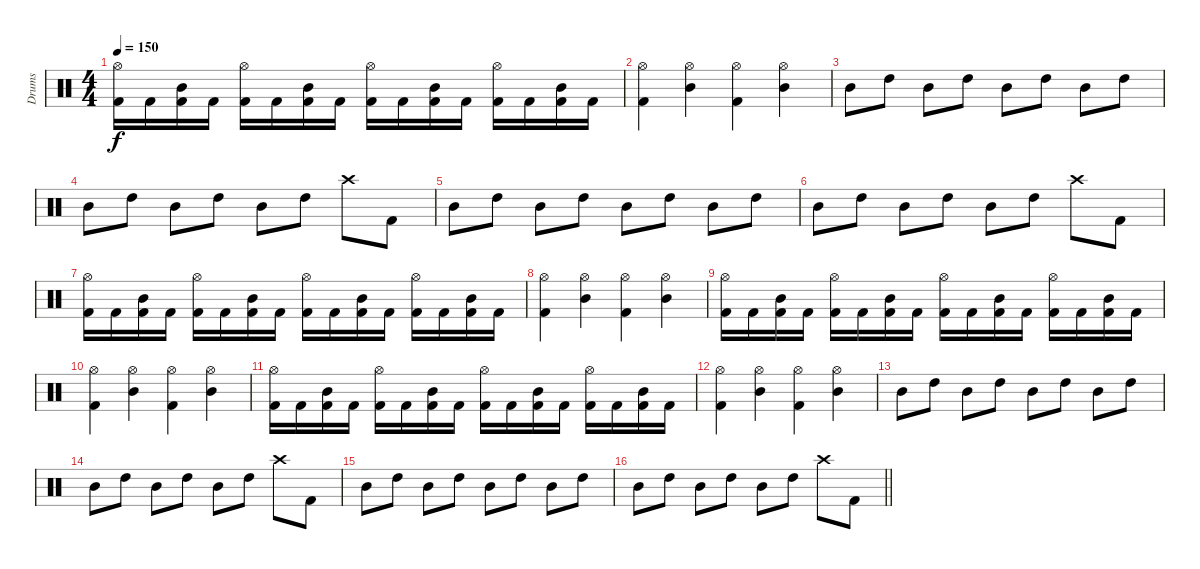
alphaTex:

\track ("Drums" "Drums") {instrument percussion}
\staff {score}
\articulation defaults
\ts (4 4)
\tempo 150
\clef neutral
\ks c
("Kick (hit) 2" "Hi-Hat (open)").16{dy f} "Kick (hit) 2".16 ("Kick (hit) 2" "Mid Tom (hit)").16 "Kick (hit) 2".16 ("Kick (hit) 2" "Hi-Hat (open)").16 "Kick (hit) 2".16 ("Kick (hit) 2" "Mid Tom (hit)").16 "Kick (hit) 2".16 ("Kick (hit) 2" "Hi-Hat (open)").16 "Kick (hit) 2".16 ("Kick (hit) 2" "Mid Tom (hit)").16 "Kick (hit) 2".16 ("Kick (hit) 2" "Hi-Hat (open)").16 "Kick (hit) 2".16 ("Kick (hit) 2" "Mid Tom (hit)").16 "Kick (hit) 2".16 |
("Kick (hit) 2" "Hi-Hat (open)").4 ("Mid Tom (hit)" "Hi-Hat (open)").4 ("Kick (hit) 2" "Hi-Hat (open)").4 ("Mid Tom (hit)" "Hi-Hat (open)").4 |
"Mid Tom (hit)".8 "High Tom (hit)".8 "Mid Tom (hit)".8 "High Tom (hit)".8 "Mid Tom (hit)".8 "High Tom (hit)".8 "Mid Tom (hit)".8 "High Tom (hit)".8 |
"Mid Tom (hit)".8 "High Tom (hit)".8 "Mid Tom (hit)".8 "High Tom (hit)".8 "Mid Tom (hit)".8 "High Tom (hit)".8 "Crash high (hit)".8 "Kick (hit) 2".8 |
"Mid Tom (hit)".8 "High Tom (hit)".8 "Mid Tom (hit)".8 "High Tom (hit)".8 "Mid Tom (hit)".8 "High Tom (hit)".8 "Mid Tom (hit)".8 "High Tom (hit)".8 |
"Mid Tom (hit)".8 "High Tom (hit)".8 "Mid Tom (hit)".8 "High Tom (hit)".8 "Mid Tom (hit)".8 "High Tom (hit)".8 "Crash high (hit)".8 "Kick (hit) 2".8 |
("Kick (hit) 2" "Hi-Hat (open)").16 "Kick (hit) 2".16 ("Kick (hit) 2" "Mid Tom (hit)").16 "Kick (hit) 2".16 ("Kick (hit) 2" "Hi-Hat (open)").16 "Kick (hit) 2".16 ("Kick (hit) 2" "Mid Tom (hit)").16 "Kick (hit) 2".16 ("Kick (hit) 2" "Hi-Hat (open)").16 "Kick (hit) 2".16 ("Kick (hit) 2" "Mid Tom (hit)").16 "Kick (hit) 2".16 ("Kick (hit) 2" "Hi-Hat (open)").16 "Kick (hit) 2".16 ("Kick (hit) 2" "Mid Tom (hit)").16 "Kick (hit) 2".16 |
("Kick (hit) 2" "Hi-Hat (open)").4 ("Mid Tom (hit)" "Hi-Hat (open)").4 ("Kick (hit) 2" "Hi-Hat (open)").4 ("Mid Tom (hit)" "Hi-Hat (open)").4 |
("Kick (hit) 2" "Hi-Hat (open)").16 "Kick (hit) 2".16 ("Kick (hit) 2" "Mid Tom (hit)").16 "Kick (hit) 2".16 ("Kick (hit) 2" "Hi-Hat (open)").16 "Kick (hit) 2".16 ("Kick (hit) 2" "Mid Tom (hit)").16 "Kick (hit) 2".16 ("Kick (hit) 2" "Hi-Hat (open)").16 "Kick (hit) 2".16 ("Kick (hit) 2" "Mid Tom (hit)").16 "Kick (hit) 2".16 ("Kick (hit) 2" "Hi-Hat (open)").16 "Kick (hit) 2".16 ("Kick (hit) 2" "Mid Tom (hit)").16 "Kick (hit) 2".16 |
("Kick (hit) 2" "Hi-Hat (open)").4 ("Mid Tom (hit)" "Hi-Hat (open)").4 ("Kick (hit) 2" "Hi-Hat (open)").4 ("Mid Tom (hit)" "Hi-Hat (open)").4 |
("Kick (hit) 2" "Hi-Hat (open)").16 "Kick (hit) 2".16 ("Kick (hit) 2" "Mid Tom (hit)").16 "Kick (hit) 2".16 ("Kick (hit) 2" "Hi-Hat (open)").16 "Kick (hit) 2".16 ("Kick (hit) 2" "Mid Tom (hit)").16 "Kick (hit) 2".16 ("Kick (hit) 2" "Hi-Hat (open)").16 "Kick (hit) 2".16 ("Kick (hit) 2" "Mid Tom (hit)").16 "Kick (hit) 2".16 ("Kick (hit) 2" "Hi-Hat (open)").16 "Kick (hit) 2".16 ("Kick (hit) 2" "Mid Tom (hit)").16 "Kick (hit) 2".16 |
("Kick (hit) 2" "Hi-Hat (open)").4 ("Mid Tom (hit)" "Hi-Hat (open)").4 ("Kick (hit) 2" "Hi-Hat (open)").4 ("Mid Tom (hit)" "Hi-Hat (open)").4 |
"Mid Tom (hit)".8 "High Tom (hit)".8 "Mid Tom (hit)".8 "High Tom (hit)".8 "Mid Tom (hit)".8 "High Tom (hit)".8 "Mid Tom (hit)".8 "High Tom (hit)".8 |
"Mid Tom (hit)".8 "High Tom (hit)".8 "Mid Tom (hit)".8 "High Tom (hit)".8 "Mid Tom (hit)".8 "High Tom (hit)".8 "Crash high (hit)".8 "Kick (hit) 2".8 |
"Mid Tom (hit)".8 "High Tom (hit)".8 "Mid Tom (hit)".8 "High Tom (hit)".8 "Mid Tom (hit)".8 "High Tom (hit)".8 "Mid Tom (hit)".8 "High Tom (hit)".8 |
\barLineRight lightlight "Mid Tom (hit)".8 "High Tom (hit)".8 "Mid Tom (hit)".8 "High Tom (hit)".8 "Mid Tom (hit)".8 "High Tom (hit)".8 "Crash high (hit)".8 "Kick (hit) 2".8
